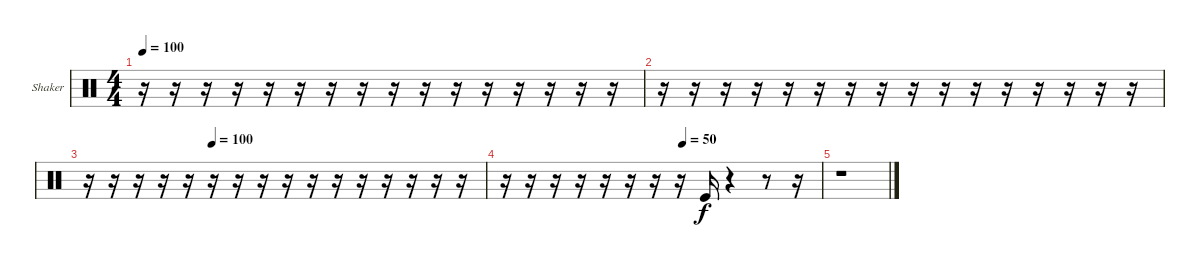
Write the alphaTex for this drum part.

\bracketExtendMode groupsimilarinstruments
\firstSystemTrackNameOrientation horizontal
\otherSystemsTrackNameOrientation horizontal
\track ("Shaker" "Shaker") {instrument percussion}
\staff {score}
\articulation defaults
\ts (4 4)
\tempo 100
\clef neutral
\ks c
r.16{dy f} r.16 r.16 r.16 r.16 r.16 r.16 r.16 r.16 r.16 r.16 r.16 r.16 r.16 r.16 r.16 |
r.16 r.16 r.16 r.16 r.16 r.16 r.16 r.16 r.16 r.16 r.16 r.16 r.16 r.16 r.16 r.16 |
\tempo (100 0.3125)
r.16 r.16 r.16 r.16 r.16 r.16 r.16 r.16 r.16 r.16 r.16 r.16 r.16 r.16 r.16 r.16 |
\tempo (50 0.5625)
r.16 r.16 r.16 r.16 r.16 r.16 r.16 r.16 "Kick (hit)".16 r.4 r.8 r.16 |
r.1
